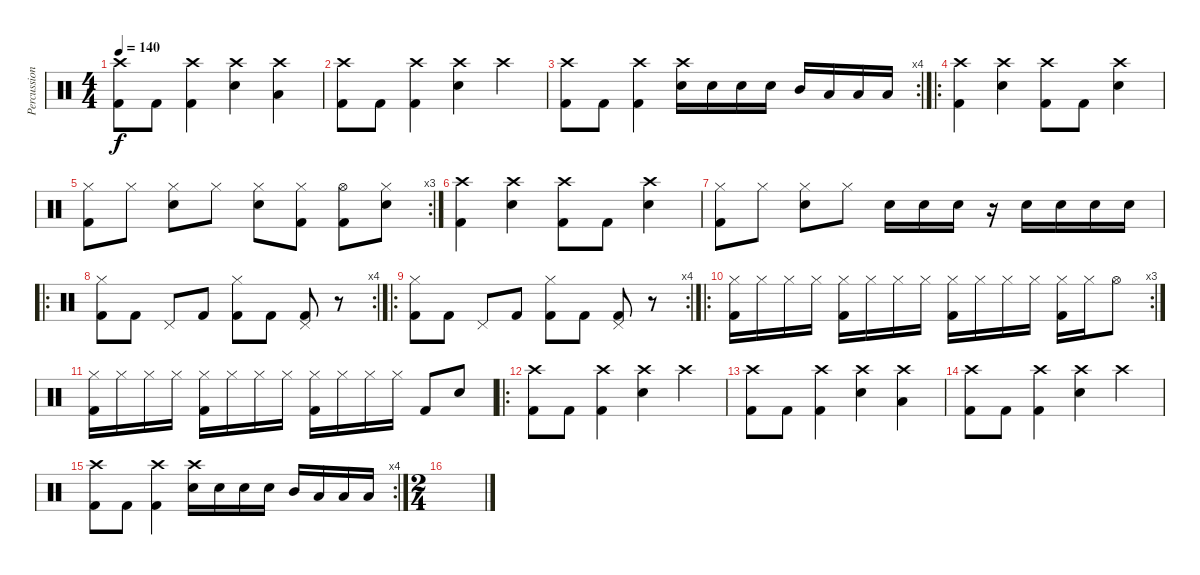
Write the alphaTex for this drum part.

\track ("Percussion" "Percussion") {instrument percussion}
\staff {score}
\articulation defaults
\ts (4 4)
\tempo 140
\clef neutral
\ks c
("Crash high (hit)" "Kick (hit) 2").8{dy f} "Kick (hit) 2".8 ("Crash high (hit)" "Kick (hit) 2").4 ("Crash high (hit)" "Electric Snare (hit)").4 ("Crash high (hit)" "Low Floor Tom (hit)").4 |
("Crash high (hit)" "Kick (hit) 2").8 "Kick (hit) 2".8 ("Crash high (hit)" "Kick (hit) 2").4 ("Crash high (hit)" "Electric Snare (hit)").4 "Crash high (hit)".4 |
\rc 4
("Crash high (hit)" "Kick (hit) 2").8 "Kick (hit) 2".8 ("Crash high (hit)" "Kick (hit) 2").4 ("Crash high (hit)" "Electric Snare (hit)").16 "Electric Snare (hit)".16 "Electric Snare (hit)".16 "Electric Snare (hit)".16 "Mid Tom (hit)".16 "Low Tom (hit)".16 "Low Floor Tom (hit)".16 "Low Floor Tom (hit)".16 |
\ro
("Crash high (hit)" "Kick (hit) 2").4 ("Crash high (hit)" "Electric Snare (hit)").4 ("Crash high (hit)" "Kick (hit) 2").8 "Kick (hit) 2".8 ("Crash high (hit)" "Electric Snare (hit)").4 |
\rc 3
("Hi-Hat (closed)" "Kick (hit) 2").8 "Hi-Hat (closed)".8 ("Hi-Hat (closed)" "Electric Snare (hit)").8 "Hi-Hat (closed)".8 ("Hi-Hat (closed)" "Electric Snare (hit)").8 ("Hi-Hat (closed)" "Kick (hit) 2").8 ("Hi-Hat (open)" "Kick (hit) 2").8 ("Hi-Hat (closed)" "Electric Snare (hit)").8 |
("Crash high (hit)" "Kick (hit) 2").4 ("Crash high (hit)" "Electric Snare (hit)").4 ("Crash high (hit)" "Kick (hit) 2").8 "Kick (hit) 2".8 ("Crash high (hit)" "Electric Snare (hit)").4 |
("Hi-Hat (closed)" "Kick (hit) 2").8 "Hi-Hat (closed)".8 ("Hi-Hat (closed)" "Electric Snare (hit)").8 "Hi-Hat (closed)".8 "Electric Snare (hit)".16 "Electric Snare (hit)".16 "Electric Snare (hit)".16 r.16 "Electric Snare (hit)".16 "Electric Snare (hit)".16 "Electric Snare (hit)".16 "Electric Snare (hit)".16 |
\ro
\rc 4
("Hi-Hat (closed)" "Kick (hit) 2").8 "Kick (hit) 2".8 "Pedal Hi-Hat (hit)".8 "Kick (hit) 2".8 ("Hi-Hat (closed)" "Kick (hit) 2").8 "Kick (hit) 2".8 ("Pedal Hi-Hat (hit)" "Kick (hit) 2").8 r.8 |
\ro
\rc 4
("Hi-Hat (closed)" "Kick (hit) 2").8 "Kick (hit) 2".8 "Pedal Hi-Hat (hit)".8 "Kick (hit) 2".8 ("Hi-Hat (closed)" "Kick (hit) 2").8 "Kick (hit) 2".8 ("Pedal Hi-Hat (hit)" "Kick (hit) 2").8 r.8 |
\ro
\rc 3
("Hi-Hat (closed)" "Kick (hit) 2").16 "Hi-Hat (closed)".16 "Hi-Hat (closed)".16 "Hi-Hat (closed)".16 ("Hi-Hat (closed)" "Kick (hit) 2").16 "Hi-Hat (closed)".16 "Hi-Hat (closed)".16 "Hi-Hat (closed)".16 ("Hi-Hat (closed)" "Kick (hit) 2").16 "Hi-Hat (closed)".16 "Hi-Hat (closed)".16 "Hi-Hat (closed)".16 ("Hi-Hat (closed)" "Kick (hit) 2").16 "Hi-Hat (closed)".16 "Hi-Hat (open)".8 |
("Hi-Hat (closed)" "Kick (hit) 2").16 "Hi-Hat (closed)".16 "Hi-Hat (closed)".16 "Hi-Hat (closed)".16 ("Hi-Hat (closed)" "Kick (hit) 2").16 "Hi-Hat (closed)".16 "Hi-Hat (closed)".16 "Hi-Hat (closed)".16 ("Hi-Hat (closed)" "Kick (hit) 2").16 "Hi-Hat (closed)".16 "Hi-Hat (closed)".16 "Hi-Hat (closed)".16 "Kick (hit) 2".8 "Electric Snare (hit)".8 |
\ro
("Crash high (hit)" "Kick (hit) 2").8 "Kick (hit) 2".8 ("Crash high (hit)" "Kick (hit) 2").4 ("Crash high (hit)" "Electric Snare (hit)").4 "Crash high (hit)".4 |
("Crash high (hit)" "Kick (hit) 2").8 "Kick (hit) 2".8 ("Crash high (hit)" "Kick (hit) 2").4 ("Crash high (hit)" "Electric Snare (hit)").4 ("Crash high (hit)" "Low Floor Tom (hit)").4 |
("Crash high (hit)" "Kick (hit) 2").8 "Kick (hit) 2".8 ("Crash high (hit)" "Kick (hit) 2").4 ("Crash high (hit)" "Electric Snare (hit)").4 "Crash high (hit)".4 |
\rc 4
("Crash high (hit)" "Kick (hit) 2").8 "Kick (hit) 2".8 ("Crash high (hit)" "Kick (hit) 2").4 ("Crash high (hit)" "Electric Snare (hit)").16 "Electric Snare (hit)".16 "Electric Snare (hit)".16 "Electric Snare (hit)".16 "Mid Tom (hit)".16 "Low Tom (hit)".16 "Low Floor Tom (hit)".16 "Low Floor Tom (hit)".16 |
\ts (2 4)
